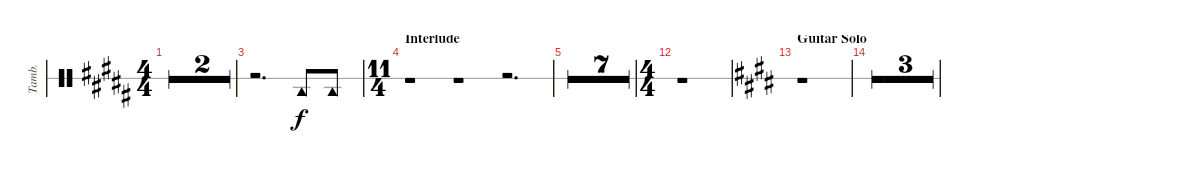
\defaultSystemsLayout 4
\bracketExtendMode groupsimilarinstruments
\otherSystemsTrackNameOrientation horizontal
\track ("Tambourine" "Tamb.") {multiBarRest instrument percussion}
\staff {score 1}
\articulation defaults
\ts (4 4)
\tempo 145
\clef neutral
\ks b
r.1{dy f} |
r.1 |
r.2{d} "Tambourine (hit)"{acc forcenatural}.8 "Tambourine (hit)"{acc forcenatural}.8 |
\ts (11 4)
\beaming (8 4 2 2 4 2 2 2 2 2)
\section ("" "Interlude")
r.1 r.1 r.2{d} |
r.1 r.1 r.2{d} |
r.1 r.1 r.2{d} |
r.1 r.1 r.2{d} |
r.1 r.1 r.2{d} |
r.1 r.1 r.2{d} |
r.1 r.1 r.2{d} |
r.1 r.1 r.2{d} |
\ts (4 4)
\beaming (8 2 2 2 2)
r.1 |
\section ("" "Guitar Solo")
\ks e
r.1 |
r.1 |
r.1 |
r.1
